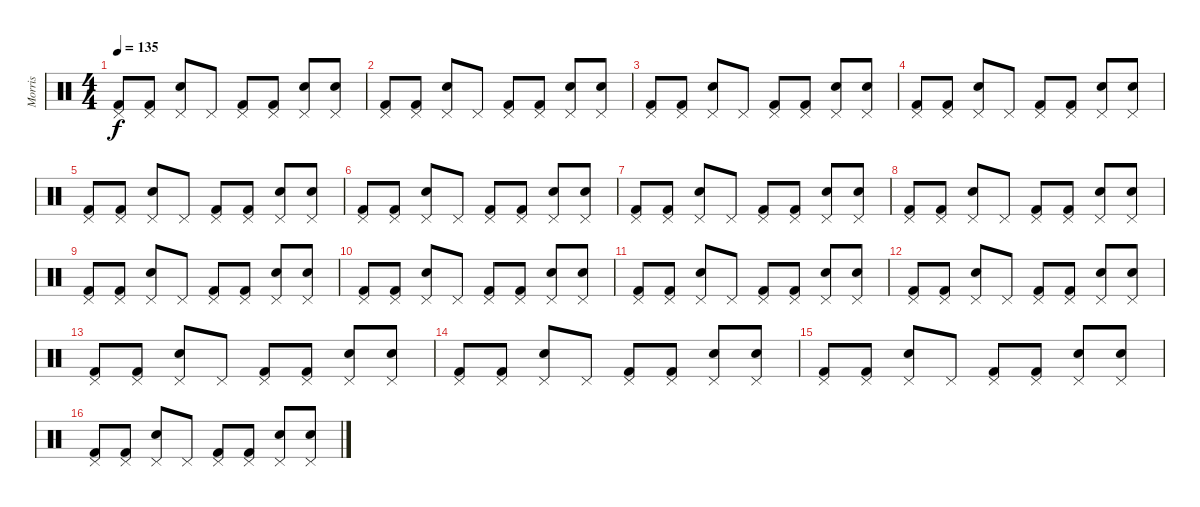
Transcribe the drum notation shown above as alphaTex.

\track ("Morris" "Morris") {instrument percussion}
\staff {score}
\articulation defaults
\ts (4 4)
\tempo 135
\clef neutral
\ks c
("Pedal Hi-Hat (hit)" "Kick (hit) 2").8{dy f} ("Pedal Hi-Hat (hit)" "Kick (hit) 2").8 ("Pedal Hi-Hat (hit)" "Electric Snare (hit)").8 "Pedal Hi-Hat (hit)".8 ("Pedal Hi-Hat (hit)" "Kick (hit) 2").8 ("Pedal Hi-Hat (hit)" "Kick (hit) 2").8 ("Pedal Hi-Hat (hit)" "Electric Snare (hit)").8 ("Pedal Hi-Hat (hit)" "Electric Snare (hit)").8 |
("Pedal Hi-Hat (hit)" "Kick (hit) 2").8 ("Pedal Hi-Hat (hit)" "Kick (hit) 2").8 ("Pedal Hi-Hat (hit)" "Electric Snare (hit)").8 "Pedal Hi-Hat (hit)".8 ("Pedal Hi-Hat (hit)" "Kick (hit) 2").8 ("Pedal Hi-Hat (hit)" "Kick (hit) 2").8 ("Pedal Hi-Hat (hit)" "Electric Snare (hit)").8 ("Pedal Hi-Hat (hit)" "Electric Snare (hit)").8 |
("Pedal Hi-Hat (hit)" "Kick (hit) 2").8 ("Pedal Hi-Hat (hit)" "Kick (hit) 2").8 ("Pedal Hi-Hat (hit)" "Electric Snare (hit)").8 "Pedal Hi-Hat (hit)".8 ("Pedal Hi-Hat (hit)" "Kick (hit) 2").8 ("Pedal Hi-Hat (hit)" "Kick (hit) 2").8 ("Pedal Hi-Hat (hit)" "Electric Snare (hit)").8 ("Pedal Hi-Hat (hit)" "Electric Snare (hit)").8 |
("Pedal Hi-Hat (hit)" "Kick (hit) 2").8 ("Pedal Hi-Hat (hit)" "Kick (hit) 2").8 ("Pedal Hi-Hat (hit)" "Electric Snare (hit)").8 "Pedal Hi-Hat (hit)".8 ("Pedal Hi-Hat (hit)" "Kick (hit) 2").8 ("Pedal Hi-Hat (hit)" "Kick (hit) 2").8 ("Pedal Hi-Hat (hit)" "Electric Snare (hit)").8 ("Pedal Hi-Hat (hit)" "Electric Snare (hit)").8 |
("Pedal Hi-Hat (hit)" "Kick (hit) 2").8 ("Pedal Hi-Hat (hit)" "Kick (hit) 2").8 ("Pedal Hi-Hat (hit)" "Electric Snare (hit)").8 "Pedal Hi-Hat (hit)".8 ("Pedal Hi-Hat (hit)" "Kick (hit) 2").8 ("Pedal Hi-Hat (hit)" "Kick (hit) 2").8 ("Pedal Hi-Hat (hit)" "Electric Snare (hit)").8 ("Pedal Hi-Hat (hit)" "Electric Snare (hit)").8 |
("Pedal Hi-Hat (hit)" "Kick (hit) 2").8 ("Pedal Hi-Hat (hit)" "Kick (hit) 2").8 ("Pedal Hi-Hat (hit)" "Electric Snare (hit)").8 "Pedal Hi-Hat (hit)".8 ("Pedal Hi-Hat (hit)" "Kick (hit) 2").8 ("Pedal Hi-Hat (hit)" "Kick (hit) 2").8 ("Pedal Hi-Hat (hit)" "Electric Snare (hit)").8 ("Pedal Hi-Hat (hit)" "Electric Snare (hit)").8 |
("Pedal Hi-Hat (hit)" "Kick (hit) 2").8 ("Pedal Hi-Hat (hit)" "Kick (hit) 2").8 ("Pedal Hi-Hat (hit)" "Electric Snare (hit)").8 "Pedal Hi-Hat (hit)".8 ("Pedal Hi-Hat (hit)" "Kick (hit) 2").8 ("Pedal Hi-Hat (hit)" "Kick (hit) 2").8 ("Pedal Hi-Hat (hit)" "Electric Snare (hit)").8 ("Pedal Hi-Hat (hit)" "Electric Snare (hit)").8 |
("Pedal Hi-Hat (hit)" "Kick (hit) 2").8 ("Pedal Hi-Hat (hit)" "Kick (hit) 2").8 ("Pedal Hi-Hat (hit)" "Electric Snare (hit)").8 "Pedal Hi-Hat (hit)".8 ("Pedal Hi-Hat (hit)" "Kick (hit) 2").8 ("Pedal Hi-Hat (hit)" "Kick (hit) 2").8 ("Pedal Hi-Hat (hit)" "Electric Snare (hit)").8 ("Pedal Hi-Hat (hit)" "Electric Snare (hit)").8 |
("Pedal Hi-Hat (hit)" "Kick (hit) 2").8 ("Pedal Hi-Hat (hit)" "Kick (hit) 2").8 ("Pedal Hi-Hat (hit)" "Electric Snare (hit)").8 "Pedal Hi-Hat (hit)".8 ("Pedal Hi-Hat (hit)" "Kick (hit) 2").8 ("Pedal Hi-Hat (hit)" "Kick (hit) 2").8 ("Pedal Hi-Hat (hit)" "Electric Snare (hit)").8 ("Pedal Hi-Hat (hit)" "Electric Snare (hit)").8 |
("Pedal Hi-Hat (hit)" "Kick (hit) 2").8 ("Pedal Hi-Hat (hit)" "Kick (hit) 2").8 ("Pedal Hi-Hat (hit)" "Electric Snare (hit)").8 "Pedal Hi-Hat (hit)".8 ("Pedal Hi-Hat (hit)" "Kick (hit) 2").8 ("Pedal Hi-Hat (hit)" "Kick (hit) 2").8 ("Pedal Hi-Hat (hit)" "Electric Snare (hit)").8 ("Pedal Hi-Hat (hit)" "Electric Snare (hit)").8 |
("Pedal Hi-Hat (hit)" "Kick (hit) 2").8 ("Pedal Hi-Hat (hit)" "Kick (hit) 2").8 ("Pedal Hi-Hat (hit)" "Electric Snare (hit)").8 "Pedal Hi-Hat (hit)".8 ("Pedal Hi-Hat (hit)" "Kick (hit) 2").8 ("Pedal Hi-Hat (hit)" "Kick (hit) 2").8 ("Pedal Hi-Hat (hit)" "Electric Snare (hit)").8 ("Pedal Hi-Hat (hit)" "Electric Snare (hit)").8 |
("Pedal Hi-Hat (hit)" "Kick (hit) 2").8 ("Pedal Hi-Hat (hit)" "Kick (hit) 2").8 ("Pedal Hi-Hat (hit)" "Electric Snare (hit)").8 "Pedal Hi-Hat (hit)".8 ("Pedal Hi-Hat (hit)" "Kick (hit) 2").8 ("Pedal Hi-Hat (hit)" "Kick (hit) 2").8 ("Pedal Hi-Hat (hit)" "Electric Snare (hit)").8 ("Pedal Hi-Hat (hit)" "Electric Snare (hit)").8 |
("Pedal Hi-Hat (hit)" "Kick (hit) 2").8 ("Pedal Hi-Hat (hit)" "Kick (hit) 2").8 ("Pedal Hi-Hat (hit)" "Electric Snare (hit)").8 "Pedal Hi-Hat (hit)".8 ("Pedal Hi-Hat (hit)" "Kick (hit) 2").8 ("Pedal Hi-Hat (hit)" "Kick (hit) 2").8 ("Pedal Hi-Hat (hit)" "Electric Snare (hit)").8 ("Pedal Hi-Hat (hit)" "Electric Snare (hit)").8 |
("Pedal Hi-Hat (hit)" "Kick (hit) 2").8 ("Pedal Hi-Hat (hit)" "Kick (hit) 2").8 ("Pedal Hi-Hat (hit)" "Electric Snare (hit)").8 "Pedal Hi-Hat (hit)".8 ("Pedal Hi-Hat (hit)" "Kick (hit) 2").8 ("Pedal Hi-Hat (hit)" "Kick (hit) 2").8 ("Pedal Hi-Hat (hit)" "Electric Snare (hit)").8 ("Pedal Hi-Hat (hit)" "Electric Snare (hit)").8 |
("Pedal Hi-Hat (hit)" "Kick (hit) 2").8 ("Pedal Hi-Hat (hit)" "Kick (hit) 2").8 ("Pedal Hi-Hat (hit)" "Electric Snare (hit)").8 "Pedal Hi-Hat (hit)".8 ("Pedal Hi-Hat (hit)" "Kick (hit) 2").8 ("Pedal Hi-Hat (hit)" "Kick (hit) 2").8 ("Pedal Hi-Hat (hit)" "Electric Snare (hit)").8 ("Pedal Hi-Hat (hit)" "Electric Snare (hit)").8 |
("Pedal Hi-Hat (hit)" "Kick (hit) 2").8 ("Pedal Hi-Hat (hit)" "Kick (hit) 2").8 ("Pedal Hi-Hat (hit)" "Electric Snare (hit)").8 "Pedal Hi-Hat (hit)".8 ("Pedal Hi-Hat (hit)" "Kick (hit) 2").8 ("Pedal Hi-Hat (hit)" "Kick (hit) 2").8 ("Pedal Hi-Hat (hit)" "Electric Snare (hit)").8 ("Pedal Hi-Hat (hit)" "Electric Snare (hit)").8
